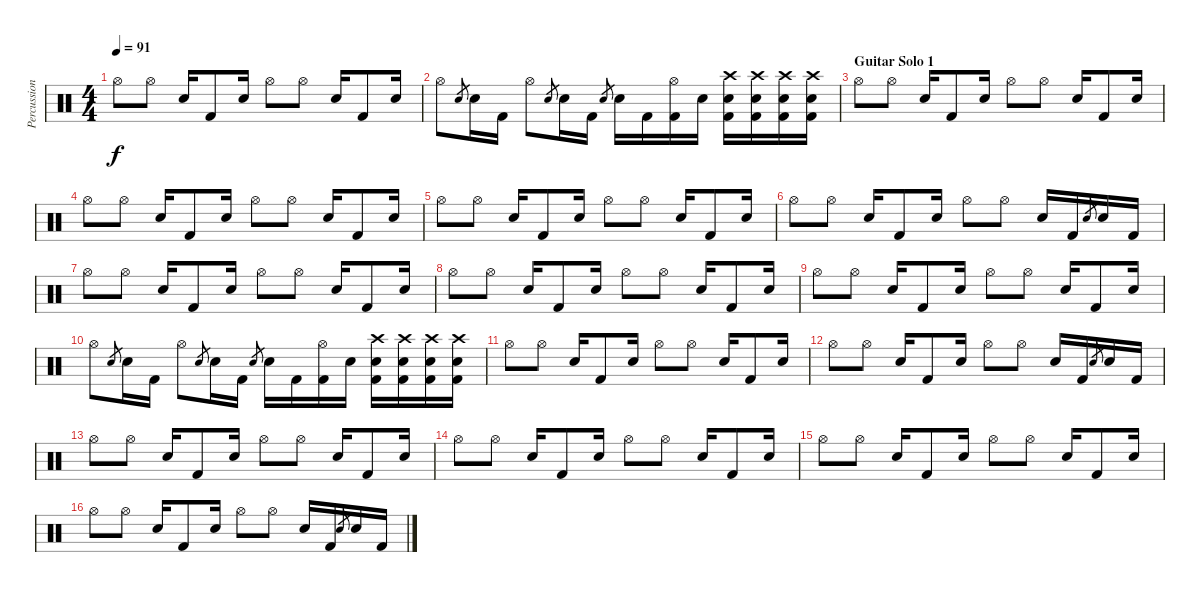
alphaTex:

\track ("Percussion" "Percussion") {instrument percussion}
\staff {score}
\articulation defaults
\ts (4 4)
\tempo 91
\clef neutral
\ks c "Hi-Hat (open)".8{dy f} "Hi-Hat (open)".8 "Snare (hit) 2".16 "Kick (hit) 2".8 "Snare (hit) 2".16 "Hi-Hat (open)".8 "Hi-Hat (open)".8 "Snare (hit) 2".16 "Kick (hit) 2".8 "Snare (hit) 2".16
|
"Hi-Hat (open)".8 "Snare (hit) 2".8{gr} "Snare (hit) 2".16 "Kick (hit) 2".16 "Hi-Hat (open)".8 "Snare (hit) 2".8{gr} "Snare (hit) 2".16 "Kick (hit) 2".16 "Snare (hit) 2".8{gr} "Snare (hit) 2".16 "Kick (hit) 2".16 ("Hi-Hat (open)" "Kick (hit) 2").16 "Snare (hit) 2".16 ("Crash high (hit)" "Snare (hit) 2" "Kick (hit) 2").16 ("Crash high (hit)" "Snare (hit) 2" "Kick (hit) 2").16 ("Crash high (hit)" "Snare (hit) 2" "Kick (hit) 2").16 ("Crash high (hit)" "Snare (hit) 2" "Kick (hit) 2").16 |
\section ("" "Guitar Solo 1")
"Hi-Hat (open)".8 "Hi-Hat (open)".8 "Snare (hit) 2".16 "Kick (hit) 2".8 "Snare (hit) 2".16 "Hi-Hat (open)".8 "Hi-Hat (open)".8 "Snare (hit) 2".16 "Kick (hit) 2".8 "Snare (hit) 2".16 |
"Hi-Hat (open)".8 "Hi-Hat (open)".8 "Snare (hit) 2".16 "Kick (hit) 2".8 "Snare (hit) 2".16 "Hi-Hat (open)".8 "Hi-Hat (open)".8 "Snare (hit) 2".16 "Kick (hit) 2".8 "Snare (hit) 2".16 |
"Hi-Hat (open)".8 "Hi-Hat (open)".8 "Snare (hit) 2".16 "Kick (hit) 2".8 "Snare (hit) 2".16 "Hi-Hat (open)".8 "Hi-Hat (open)".8 "Snare (hit) 2".16 "Kick (hit) 2".8 "Snare (hit) 2".16 |
"Hi-Hat (open)".8 "Hi-Hat (open)".8 "Snare (hit) 2".16 "Kick (hit) 2".8 "Snare (hit) 2".16 "Hi-Hat (open)".8 "Hi-Hat (open)".8 "Snare (hit) 2".16 "Kick (hit) 2".16 "Snare (hit) 2".8{gr} "Snare (hit) 2".16 "Kick (hit) 2".16 |
"Hi-Hat (open)".8 "Hi-Hat (open)".8 "Snare (hit) 2".16 "Kick (hit) 2".8 "Snare (hit) 2".16 "Hi-Hat (open)".8 "Hi-Hat (open)".8 "Snare (hit) 2".16 "Kick (hit) 2".8 "Snare (hit) 2".16 |
"Hi-Hat (open)".8 "Hi-Hat (open)".8 "Snare (hit) 2".16 "Kick (hit) 2".8 "Snare (hit) 2".16 "Hi-Hat (open)".8 "Hi-Hat (open)".8 "Snare (hit) 2".16 "Kick (hit) 2".8 "Snare (hit) 2".16 |
"Hi-Hat (open)".8 "Hi-Hat (open)".8 "Snare (hit) 2".16 "Kick (hit) 2".8 "Snare (hit) 2".16 "Hi-Hat (open)".8 "Hi-Hat (open)".8 "Snare (hit) 2".16 "Kick (hit) 2".8 "Snare (hit) 2".16 |
"Hi-Hat (open)".8 "Snare (hit) 2".8{gr} "Snare (hit) 2".16 "Kick (hit) 2".16 "Hi-Hat (open)".8 "Snare (hit) 2".8{gr} "Snare (hit) 2".16 "Kick (hit) 2".16 "Snare (hit) 2".8{gr} "Snare (hit) 2".16 "Kick (hit) 2".16 ("Hi-Hat (open)" "Kick (hit) 2").16 "Snare (hit) 2".16 ("Crash high (hit)" "Snare (hit) 2" "Kick (hit) 2").16 ("Crash high (hit)" "Snare (hit) 2" "Kick (hit) 2").16 ("Crash high (hit)" "Snare (hit) 2" "Kick (hit) 2").16 ("Crash high (hit)" "Snare (hit) 2" "Kick (hit) 2").16 |
"Hi-Hat (open)".8 "Hi-Hat (open)".8 "Snare (hit) 2".16 "Kick (hit) 2".8 "Snare (hit) 2".16 "Hi-Hat (open)".8 "Hi-Hat (open)".8 "Snare (hit) 2".16 "Kick (hit) 2".8 "Snare (hit) 2".16 |
"Hi-Hat (open)".8 "Hi-Hat (open)".8 "Snare (hit) 2".16 "Kick (hit) 2".8 "Snare (hit) 2".16 "Hi-Hat (open)".8 "Hi-Hat (open)".8 "Snare (hit) 2".16 "Kick (hit) 2".16 "Snare (hit) 2".8{gr} "Snare (hit) 2".16 "Kick (hit) 2".16 |
"Hi-Hat (open)".8 "Hi-Hat (open)".8 "Snare (hit) 2".16 "Kick (hit) 2".8 "Snare (hit) 2".16 "Hi-Hat (open)".8 "Hi-Hat (open)".8 "Snare (hit) 2".16 "Kick (hit) 2".8 "Snare (hit) 2".16 |
"Hi-Hat (open)".8 "Hi-Hat (open)".8 "Snare (hit) 2".16 "Kick (hit) 2".8 "Snare (hit) 2".16 "Hi-Hat (open)".8 "Hi-Hat (open)".8 "Snare (hit) 2".16 "Kick (hit) 2".8 "Snare (hit) 2".16 |
"Hi-Hat (open)".8 "Hi-Hat (open)".8 "Snare (hit) 2".16 "Kick (hit) 2".8 "Snare (hit) 2".16 "Hi-Hat (open)".8 "Hi-Hat (open)".8 "Snare (hit) 2".16 "Kick (hit) 2".8 "Snare (hit) 2".16 |
"Hi-Hat (open)".8 "Hi-Hat (open)".8 "Snare (hit) 2".16 "Kick (hit) 2".8 "Snare (hit) 2".16 "Hi-Hat (open)".8 "Hi-Hat (open)".8 "Snare (hit) 2".16 "Kick (hit) 2".16 "Snare (hit) 2".8{gr} "Snare (hit) 2".16 "Kick (hit) 2".16
